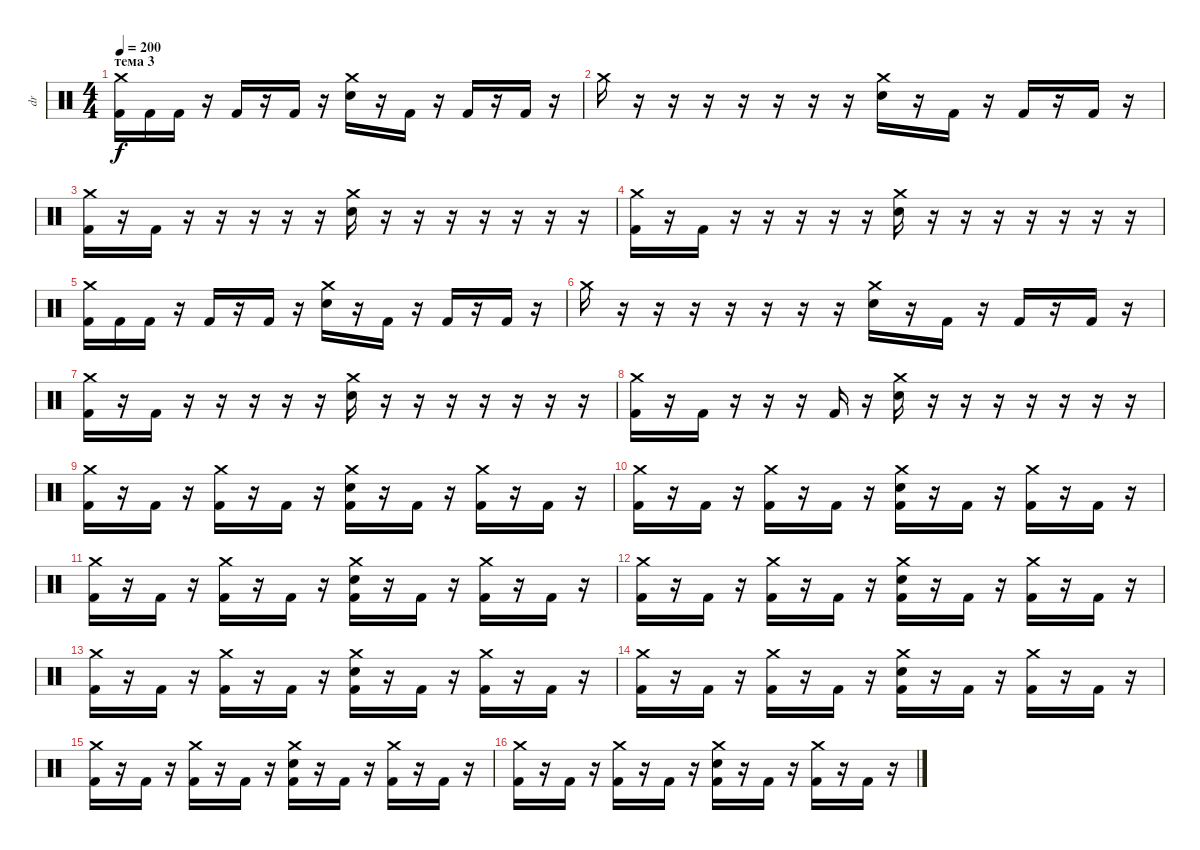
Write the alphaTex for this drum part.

\track ("dr" "dr") {instrument percussion}
\staff {score}
\articulation defaults
\ts (4 4)
\section ("" "тема 3")
\tempo 200
\clef neutral
\ks c
("Crash medium (hit)" "Kick (hit) 2").16{dy f} "Kick (hit) 2".16 "Kick (hit) 2".16 r.16 "Kick (hit) 2".16 r.16 "Kick (hit) 2".16 r.16 ("Crash medium (hit)" "Electric Snare (hit)").16 r.16 "Kick (hit) 2".16 r.16 "Kick (hit) 2".16 r.16 "Kick (hit) 2".16 r.16 |
"Crash medium (hit)".16 r.16 r.16 r.16 r.16 r.16 r.16 r.16 ("Crash medium (hit)" "Electric Snare (hit)").16 r.16 "Kick (hit) 2".16 r.16 "Kick (hit) 2".16 r.16 "Kick (hit) 2".16 r.16 |
("Crash medium (hit)" "Kick (hit) 2").16 r.16 "Kick (hit) 2".16 r.16 r.16 r.16 r.16 r.16 ("Crash medium (hit)" "Electric Snare (hit)").16 r.16 r.16 r.16 r.16 r.16 r.16 r.16 |
("Crash medium (hit)" "Kick (hit) 2").16 r.16 "Kick (hit) 2".16 r.16 r.16 r.16 r.16 r.16 ("Crash medium (hit)" "Electric Snare (hit)").16 r.16 r.16 r.16 r.16 r.16 r.16 r.16 |
("Crash medium (hit)" "Kick (hit) 2").16 "Kick (hit) 2".16 "Kick (hit) 2".16 r.16 "Kick (hit) 2".16 r.16 "Kick (hit) 2".16 r.16 ("Crash medium (hit)" "Electric Snare (hit)").16 r.16 "Kick (hit) 2".16 r.16 "Kick (hit) 2".16 r.16 "Kick (hit) 2".16 r.16 |
"Crash medium (hit)".16 r.16 r.16 r.16 r.16 r.16 r.16 r.16 ("Crash medium (hit)" "Electric Snare (hit)").16 r.16 "Kick (hit) 2".16 r.16 "Kick (hit) 2".16 r.16 "Kick (hit) 2".16 r.16 |
("Crash medium (hit)" "Kick (hit) 2").16 r.16 "Kick (hit) 2".16 r.16 r.16 r.16 r.16 r.16 ("Crash medium (hit)" "Electric Snare (hit)").16 r.16 r.16 r.16 r.16 r.16 r.16 r.16 |
("Crash medium (hit)" "Kick (hit) 2").16 r.16 "Kick (hit) 2".16 r.16 r.16 r.16 "Kick (hit) 2".16 r.16 ("Crash medium (hit)" "Electric Snare (hit)").16 r.16 r.16 r.16 r.16 r.16 r.16 r.16 |
("Crash medium (hit)" "Kick (hit) 2").16 r.16 "Kick (hit) 2".16 r.16 ("Crash medium (hit)" "Kick (hit) 2").16 r.16 "Kick (hit) 2".16 r.16 ("Crash medium (hit)" "Electric Snare (hit)" "Kick (hit) 2").16 r.16 "Kick (hit) 2".16 r.16 ("Crash medium (hit)" "Kick (hit) 2").16 r.16 "Kick (hit) 2".16 r.16 |
("Crash medium (hit)" "Kick (hit) 2").16 r.16 "Kick (hit) 2".16 r.16 ("Crash medium (hit)" "Kick (hit) 2").16 r.16 "Kick (hit) 2".16 r.16 ("Crash medium (hit)" "Electric Snare (hit)" "Kick (hit) 2").16 r.16 "Kick (hit) 2".16 r.16 ("Crash medium (hit)" "Kick (hit) 2").16 r.16 "Kick (hit) 2".16 r.16 |
("Crash medium (hit)" "Kick (hit) 2").16 r.16 "Kick (hit) 2".16 r.16 ("Crash medium (hit)" "Kick (hit) 2").16 r.16 "Kick (hit) 2".16 r.16 ("Crash medium (hit)" "Electric Snare (hit)" "Kick (hit) 2").16 r.16 "Kick (hit) 2".16 r.16 ("Crash medium (hit)" "Kick (hit) 2").16 r.16 "Kick (hit) 2".16 r.16 |
("Crash medium (hit)" "Kick (hit) 2").16 r.16 "Kick (hit) 2".16 r.16 ("Crash medium (hit)" "Kick (hit) 2").16 r.16 "Kick (hit) 2".16 r.16 ("Crash medium (hit)" "Electric Snare (hit)" "Kick (hit) 2").16 r.16 "Kick (hit) 2".16 r.16 ("Crash medium (hit)" "Kick (hit) 2").16 r.16 "Kick (hit) 2".16 r.16 |
("Crash medium (hit)" "Kick (hit) 2").16 r.16 "Kick (hit) 2".16 r.16 ("Crash medium (hit)" "Kick (hit) 2").16 r.16 "Kick (hit) 2".16 r.16 ("Crash medium (hit)" "Electric Snare (hit)" "Kick (hit) 2").16 r.16 "Kick (hit) 2".16 r.16 ("Crash medium (hit)" "Kick (hit) 2").16 r.16 "Kick (hit) 2".16 r.16 |
("Crash medium (hit)" "Kick (hit) 2").16 r.16 "Kick (hit) 2".16 r.16 ("Crash medium (hit)" "Kick (hit) 2").16 r.16 "Kick (hit) 2".16 r.16 ("Crash medium (hit)" "Electric Snare (hit)" "Kick (hit) 2").16 r.16 "Kick (hit) 2".16 r.16 ("Crash medium (hit)" "Kick (hit) 2").16 r.16 "Kick (hit) 2".16 r.16 |
("Crash medium (hit)" "Kick (hit) 2").16 r.16 "Kick (hit) 2".16 r.16 ("Crash medium (hit)" "Kick (hit) 2").16 r.16 "Kick (hit) 2".16 r.16 ("Crash medium (hit)" "Electric Snare (hit)" "Kick (hit) 2").16 r.16 "Kick (hit) 2".16 r.16 ("Crash medium (hit)" "Kick (hit) 2").16 r.16 "Kick (hit) 2".16 r.16 |
("Crash medium (hit)" "Kick (hit) 2").16 r.16 "Kick (hit) 2".16 r.16 ("Crash medium (hit)" "Kick (hit) 2").16 r.16 "Kick (hit) 2".16 r.16 ("Crash medium (hit)" "Electric Snare (hit)" "Kick (hit) 2").16 r.16 "Kick (hit) 2".16 r.16 ("Crash medium (hit)" "Kick (hit) 2").16 r.16 "Kick (hit) 2".16 r.16
